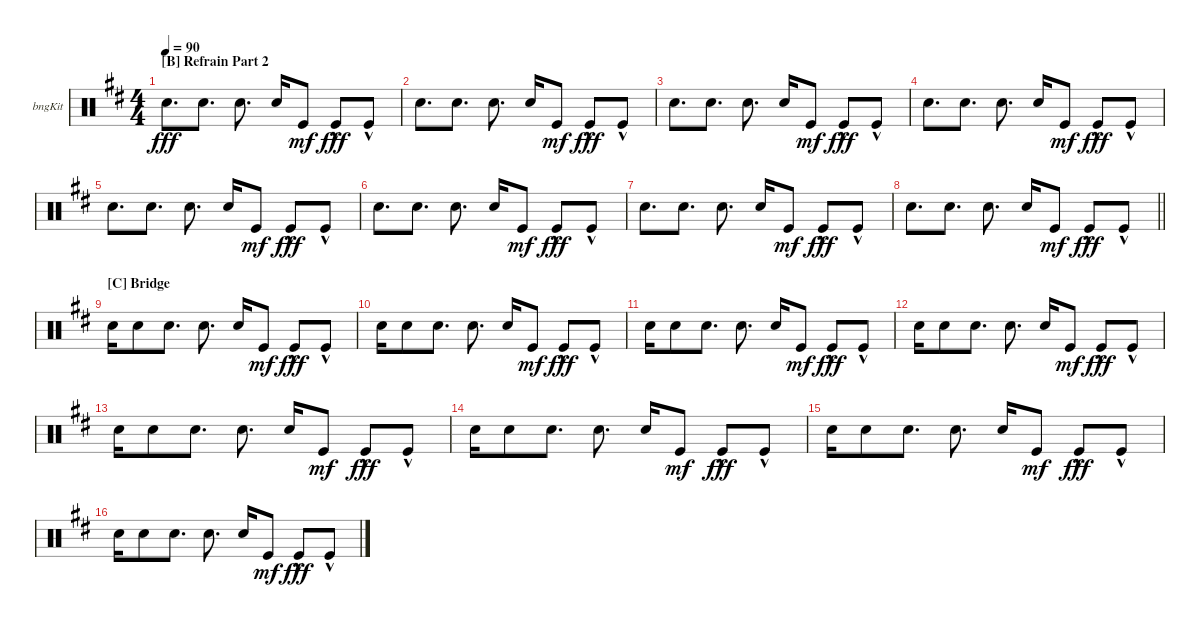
\defaultSystemsLayout 4
\bracketExtendMode groupsimilarinstruments
\firstSystemTrackNameOrientation horizontal
\otherSystemsTrackNameOrientation horizontal
\track ("hi & lo synth drum" "bngKit") {instrument percussion}
\staff {score}
\articulation defaults
\ts (4 4)
\section ("B" "Refrain Part 2")
\tempo 90
\clef neutral
\scale
0.25
\ks d "Snare (hit) 2".8{d dy fff} "Snare (hit) 2".8{d} "Snare (hit) 2".8{d} "Snare (hit) 2".16 "Kick (hit)".8{dy mf} "Kick (hit)"{hac}.8{dy fff} "Kick (hit)"{hac}.8
|
\scale
0.25 "Snare (hit) 2".8{d} "Snare (hit) 2".8{d} "Snare (hit) 2".8{d} "Snare (hit) 2".16 "Kick (hit)".8{dy mf} "Kick (hit)"{hac}.8{dy fff} "Kick (hit)"{hac}.8 |
\scale
0.25 "Snare (hit) 2".8{d} "Snare (hit) 2".8{d} "Snare (hit) 2".8{d} "Snare (hit) 2".16 "Kick (hit)".8{dy mf} "Kick (hit)"{hac}.8{dy fff} "Kick (hit)"{hac}.8 |
\scale
0.25 "Snare (hit) 2".8{d} "Snare (hit) 2".8{d} "Snare (hit) 2".8{d} "Snare (hit) 2".16 "Kick (hit)".8{dy mf} "Kick (hit)"{hac}.8{dy fff} "Kick (hit)"{hac}.8 |
\scale
0.25 "Snare (hit) 2".8{d} "Snare (hit) 2".8{d} "Snare (hit) 2".8{d} "Snare (hit) 2".16 "Kick (hit)".8{dy mf} "Kick (hit)"{hac}.8{dy fff} "Kick (hit)"{hac}.8 |
\scale
0.25 "Snare (hit) 2".8{d} "Snare (hit) 2".8{d} "Snare (hit) 2".8{d} "Snare (hit) 2".16 "Kick (hit)".8{dy mf} "Kick (hit)"{hac}.8{dy fff} "Kick (hit)"{hac}.8 |
\scale
0.25 "Snare (hit) 2".8{d} "Snare (hit) 2".8{d} "Snare (hit) 2".8{d} "Snare (hit) 2".16 "Kick (hit)".8{dy mf} "Kick (hit)"{hac}.8{dy fff} "Kick (hit)"{hac}.8 |
\scale
0.25
\barLineRight lightlight "Snare (hit) 2".8{d} "Snare (hit) 2".8{d} "Snare (hit) 2".8{d} "Snare (hit) 2".16 "Kick (hit)".8{dy mf} "Kick (hit)"{hac}.8{dy fff} "Kick (hit)"{hac}.8
|
\section ("C" "Bridge")
\scale
0.25 "Snare (hit) 2".16 "Snare (hit) 2".8 "Snare (hit) 2".8{d} "Snare (hit) 2".8{d} "Snare (hit) 2".16 "Kick (hit)".8{dy mf} "Kick (hit)"{hac}.8{dy fff} "Kick (hit)"{hac}.8 |
\scale
0.25 "Snare (hit) 2".16 "Snare (hit) 2".8 "Snare (hit) 2".8{d} "Snare (hit) 2".8{d} "Snare (hit) 2".16 "Kick (hit)".8{dy mf} "Kick (hit)"{hac}.8{dy fff} "Kick (hit)"{hac}.8 |
\scale
0.25 "Snare (hit) 2".16 "Snare (hit) 2".8 "Snare (hit) 2".8{d} "Snare (hit) 2".8{d} "Snare (hit) 2".16 "Kick (hit)".8{dy mf} "Kick (hit)"{hac}.8{dy fff} "Kick (hit)"{hac}.8 |
\scale
0.25 "Snare (hit) 2".16 "Snare (hit) 2".8 "Snare (hit) 2".8{d} "Snare (hit) 2".8{d} "Snare (hit) 2".16 "Kick (hit)".8{dy mf} "Kick (hit)"{hac}.8{dy fff} "Kick (hit)"{hac}.8 |
\scale
0.25 "Snare (hit) 2".16 "Snare (hit) 2".8 "Snare (hit) 2".8{d} "Snare (hit) 2".8{d} "Snare (hit) 2".16 "Kick (hit)".8{dy mf} "Kick (hit)"{hac}.8{dy fff} "Kick (hit)"{hac}.8 |
\scale
0.25 "Snare (hit) 2".16 "Snare (hit) 2".8 "Snare (hit) 2".8{d} "Snare (hit) 2".8{d} "Snare (hit) 2".16 "Kick (hit)".8{dy mf} "Kick (hit)"{hac}.8{dy fff} "Kick (hit)"{hac}.8 |
\scale
0.25 "Snare (hit) 2".16 "Snare (hit) 2".8 "Snare (hit) 2".8{d} "Snare (hit) 2".8{d} "Snare (hit) 2".16 "Kick (hit)".8{dy mf} "Kick (hit)"{hac}.8{dy fff} "Kick (hit)"{hac}.8 |
\scale
0.25 "Snare (hit) 2".16 "Snare (hit) 2".8 "Snare (hit) 2".8{d} "Snare (hit) 2".8{d} "Snare (hit) 2".16 "Kick (hit)".8{dy mf} "Kick (hit)"{hac}.8{dy fff} "Kick (hit)"{hac}.8
